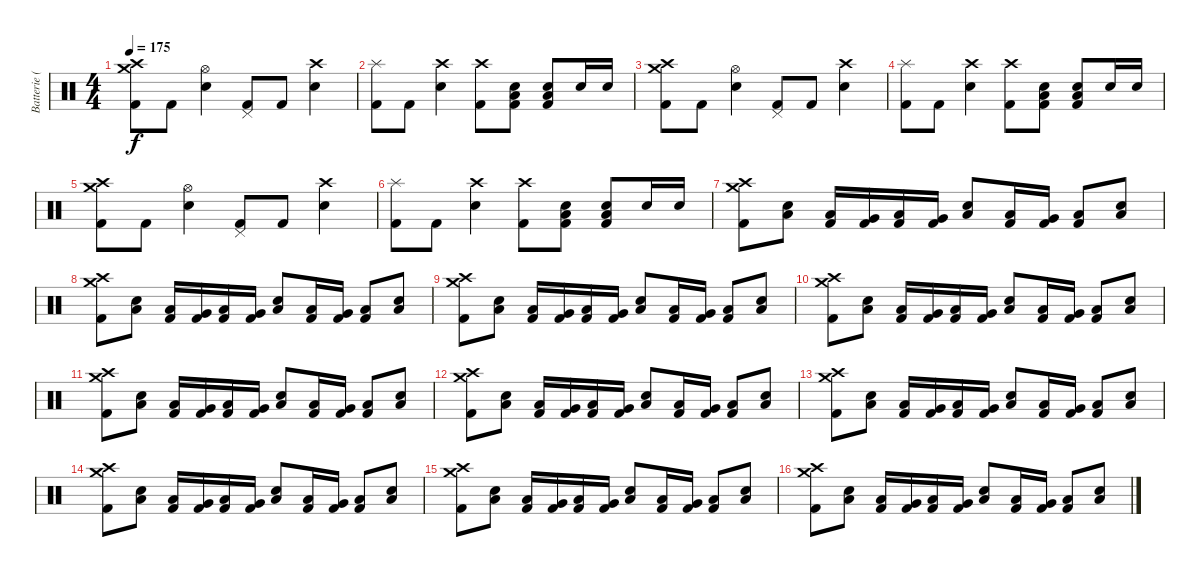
\track ("Batterie (Tré Cool)" "Batterie (") {instrument percussion}
\staff {score}
\articulation defaults
\ts (4 4)
\tempo 175
\clef neutral
\ks c
("Crash medium (hit)" "Crash high (hit)" "Kick (hit) 2").8{dy f} "Kick (hit) 2".8 ("Hi-Hat (open)" "Electric Snare (hit)").4 ("Pedal Hi-Hat (hit)" "Kick (hit) 2").8 "Kick (hit) 2".8 ("Crash high (hit)" "Electric Snare (hit)").4 |
("Splash (hit)" "Kick (hit) 2").8 "Kick (hit) 2".8 ("Crash high (hit)" "Electric Snare (hit)").4 ("Crash high (hit)" "Kick (hit) 2").8 ("Low Floor Tom (hit)" "Electric Snare (hit)" "Kick (hit) 2").8 ("Low Floor Tom (hit)" "Electric Snare (hit)" "Kick (hit) 2").8 "Electric Snare (hit)".16 "Electric Snare (hit)".16 |
("Crash medium (hit)" "Crash high (hit)" "Kick (hit) 2").8 "Kick (hit) 2".8 ("Hi-Hat (open)" "Electric Snare (hit)").4 ("Pedal Hi-Hat (hit)" "Kick (hit) 2").8 "Kick (hit) 2".8 ("Crash high (hit)" "Electric Snare (hit)").4 |
("Splash (hit)" "Kick (hit) 2").8 "Kick (hit) 2".8 ("Crash high (hit)" "Electric Snare (hit)").4 ("Crash high (hit)" "Kick (hit) 2").8 ("Low Floor Tom (hit)" "Electric Snare (hit)" "Kick (hit) 2").8 ("Low Floor Tom (hit)" "Electric Snare (hit)" "Kick (hit) 2").8 "Electric Snare (hit)".16 "Electric Snare (hit)".16 |
("Crash medium (hit)" "Crash high (hit)" "Kick (hit) 2").8 "Kick (hit) 2".8 ("Hi-Hat (open)" "Electric Snare (hit)").4 ("Pedal Hi-Hat (hit)" "Kick (hit) 2").8 "Kick (hit) 2".8 ("Crash high (hit)" "Electric Snare (hit)").4 |
("Splash (hit)" "Kick (hit) 2").8 "Kick (hit) 2".8 ("Crash high (hit)" "Electric Snare (hit)").4 ("Crash high (hit)" "Kick (hit) 2").8 ("Low Floor Tom (hit)" "Electric Snare (hit)" "Kick (hit) 2").8 ("Low Floor Tom (hit)" "Electric Snare (hit)" "Kick (hit) 2").8 "Electric Snare (hit)".16 "Electric Snare (hit)".16 |
("Crash medium (hit)" "Crash high (hit)" "Kick (hit) 2").8 ("Low Floor Tom (hit)" "Electric Snare (hit)").8 ("Low Floor Tom (hit)" "Kick (hit) 2").16 ("Very Low Tom (hit)" "Kick (hit) 2").16 ("Low Floor Tom (hit)" "Kick (hit) 2").16 ("Very Low Tom (hit)" "Kick (hit) 2").16 ("Low Floor Tom (hit)" "Electric Snare (hit)").8 ("Low Floor Tom (hit)" "Kick (hit) 2").16 ("Very Low Tom (hit)" "Kick (hit) 2").16 ("Low Floor Tom (hit)" "Kick (hit) 2").8 ("Low Floor Tom (hit)" "Electric Snare (hit)").8 |
("Crash medium (hit)" "Crash high (hit)" "Kick (hit) 2").8 ("Low Floor Tom (hit)" "Electric Snare (hit)").8 ("Low Floor Tom (hit)" "Kick (hit) 2").16 ("Very Low Tom (hit)" "Kick (hit) 2").16 ("Low Floor Tom (hit)" "Kick (hit) 2").16 ("Very Low Tom (hit)" "Kick (hit) 2").16 ("Low Floor Tom (hit)" "Electric Snare (hit)").8 ("Low Floor Tom (hit)" "Kick (hit) 2").16 ("Very Low Tom (hit)" "Kick (hit) 2").16 ("Low Floor Tom (hit)" "Kick (hit) 2").8 ("Low Floor Tom (hit)" "Electric Snare (hit)").8 |
("Crash medium (hit)" "Crash high (hit)" "Kick (hit) 2").8 ("Low Floor Tom (hit)" "Electric Snare (hit)").8 ("Low Floor Tom (hit)" "Kick (hit) 2").16 ("Very Low Tom (hit)" "Kick (hit) 2").16 ("Low Floor Tom (hit)" "Kick (hit) 2").16 ("Very Low Tom (hit)" "Kick (hit) 2").16 ("Low Floor Tom (hit)" "Electric Snare (hit)").8 ("Low Floor Tom (hit)" "Kick (hit) 2").16 ("Very Low Tom (hit)" "Kick (hit) 2").16 ("Low Floor Tom (hit)" "Kick (hit) 2").8 ("Low Floor Tom (hit)" "Electric Snare (hit)").8 |
("Crash medium (hit)" "Crash high (hit)" "Kick (hit) 2").8 ("Low Floor Tom (hit)" "Electric Snare (hit)").8 ("Low Floor Tom (hit)" "Kick (hit) 2").16 ("Very Low Tom (hit)" "Kick (hit) 2").16 ("Low Floor Tom (hit)" "Kick (hit) 2").16 ("Very Low Tom (hit)" "Kick (hit) 2").16 ("Low Floor Tom (hit)" "Electric Snare (hit)").8 ("Low Floor Tom (hit)" "Kick (hit) 2").16 ("Very Low Tom (hit)" "Kick (hit) 2").16 ("Low Floor Tom (hit)" "Kick (hit) 2").8 ("Low Floor Tom (hit)" "Electric Snare (hit)").8 |
("Crash medium (hit)" "Crash high (hit)" "Kick (hit) 2").8 ("Low Floor Tom (hit)" "Electric Snare (hit)").8 ("Low Floor Tom (hit)" "Kick (hit) 2").16 ("Very Low Tom (hit)" "Kick (hit) 2").16 ("Low Floor Tom (hit)" "Kick (hit) 2").16 ("Very Low Tom (hit)" "Kick (hit) 2").16 ("Low Floor Tom (hit)" "Electric Snare (hit)").8 ("Low Floor Tom (hit)" "Kick (hit) 2").16 ("Very Low Tom (hit)" "Kick (hit) 2").16 ("Low Floor Tom (hit)" "Kick (hit) 2").8 ("Low Floor Tom (hit)" "Electric Snare (hit)").8 |
("Crash medium (hit)" "Crash high (hit)" "Kick (hit) 2").8 ("Low Floor Tom (hit)" "Electric Snare (hit)").8 ("Low Floor Tom (hit)" "Kick (hit) 2").16 ("Very Low Tom (hit)" "Kick (hit) 2").16 ("Low Floor Tom (hit)" "Kick (hit) 2").16 ("Very Low Tom (hit)" "Kick (hit) 2").16 ("Low Floor Tom (hit)" "Electric Snare (hit)").8 ("Low Floor Tom (hit)" "Kick (hit) 2").16 ("Very Low Tom (hit)" "Kick (hit) 2").16 ("Low Floor Tom (hit)" "Kick (hit) 2").8 ("Low Floor Tom (hit)" "Electric Snare (hit)").8 |
("Crash medium (hit)" "Crash high (hit)" "Kick (hit) 2").8 ("Low Floor Tom (hit)" "Electric Snare (hit)").8 ("Low Floor Tom (hit)" "Kick (hit) 2").16 ("Very Low Tom (hit)" "Kick (hit) 2").16 ("Low Floor Tom (hit)" "Kick (hit) 2").16 ("Very Low Tom (hit)" "Kick (hit) 2").16 ("Low Floor Tom (hit)" "Electric Snare (hit)").8 ("Low Floor Tom (hit)" "Kick (hit) 2").16 ("Very Low Tom (hit)" "Kick (hit) 2").16 ("Low Floor Tom (hit)" "Kick (hit) 2").8 ("Low Floor Tom (hit)" "Electric Snare (hit)").8 |
("Crash medium (hit)" "Crash high (hit)" "Kick (hit) 2").8 ("Low Floor Tom (hit)" "Electric Snare (hit)").8 ("Low Floor Tom (hit)" "Kick (hit) 2").16 ("Very Low Tom (hit)" "Kick (hit) 2").16 ("Low Floor Tom (hit)" "Kick (hit) 2").16 ("Very Low Tom (hit)" "Kick (hit) 2").16 ("Low Floor Tom (hit)" "Electric Snare (hit)").8 ("Low Floor Tom (hit)" "Kick (hit) 2").16 ("Very Low Tom (hit)" "Kick (hit) 2").16 ("Low Floor Tom (hit)" "Kick (hit) 2").8 ("Low Floor Tom (hit)" "Electric Snare (hit)").8 |
("Crash medium (hit)" "Crash high (hit)" "Kick (hit) 2").8 ("Low Floor Tom (hit)" "Electric Snare (hit)").8 ("Low Floor Tom (hit)" "Kick (hit) 2").16 ("Very Low Tom (hit)" "Kick (hit) 2").16 ("Low Floor Tom (hit)" "Kick (hit) 2").16 ("Very Low Tom (hit)" "Kick (hit) 2").16 ("Low Floor Tom (hit)" "Electric Snare (hit)").8 ("Low Floor Tom (hit)" "Kick (hit) 2").16 ("Very Low Tom (hit)" "Kick (hit) 2").16 ("Low Floor Tom (hit)" "Kick (hit) 2").8 ("Low Floor Tom (hit)" "Electric Snare (hit)").8 |
("Crash medium (hit)" "Crash high (hit)" "Kick (hit) 2").8 ("Low Floor Tom (hit)" "Electric Snare (hit)").8 ("Low Floor Tom (hit)" "Kick (hit) 2").16 ("Very Low Tom (hit)" "Kick (hit) 2").16 ("Low Floor Tom (hit)" "Kick (hit) 2").16 ("Very Low Tom (hit)" "Kick (hit) 2").16 ("Low Floor Tom (hit)" "Electric Snare (hit)").8 ("Low Floor Tom (hit)" "Kick (hit) 2").16 ("Very Low Tom (hit)" "Kick (hit) 2").16 ("Low Floor Tom (hit)" "Kick (hit) 2").8 ("Low Floor Tom (hit)" "Electric Snare (hit)").8
